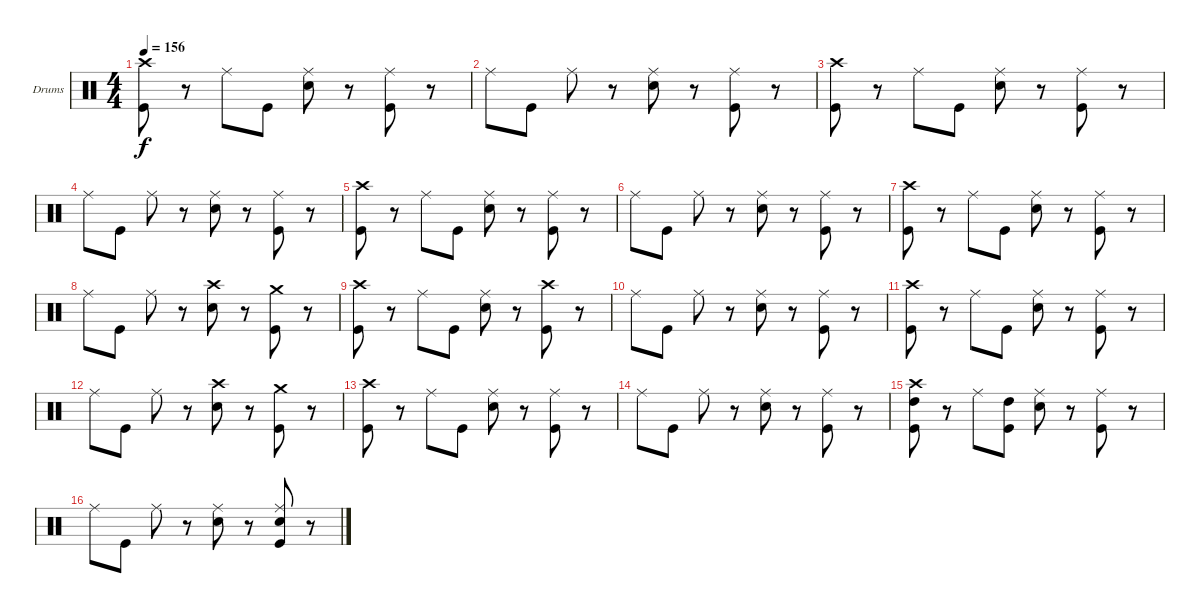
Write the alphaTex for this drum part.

\defaultSystemsLayout 4
\bracketExtendMode groupsimilarinstruments
\firstSystemTrackNameOrientation horizontal
\otherSystemsTrackNameOrientation horizontal
\track ("Anton Kubrak" "Drums") {instrument percussion}
\staff {score}
\articulation defaults
\ts (4 4)
\tempo 156
\clef neutral
\scale
0.333333
\ks c
("Crash high (hit)" "Kick (hit)").8{dy f} r.8 "Ride (middle)".8 "Kick (hit)".8 ("Ride (middle)" "Snare (hit) 2").8 r.8 ("Ride (middle)" "Kick (hit)").8 r.8 |
\scale
0.333333 "Ride (middle)".8 "Kick (hit)".8 "Ride (middle)".8 r.8 ("Ride (middle)" "Snare (hit) 2").8 r.8 ("Ride (middle)" "Kick (hit)").8 r.8 |
\scale
0.333333 ("Crash high (hit)" "Kick (hit)").8 r.8 "Ride (middle)".8 "Kick (hit)".8 ("Ride (middle)" "Snare (hit) 2").8 r.8 ("Ride (middle)" "Kick (hit)").8 r.8 |
\scale
0.333333 "Ride (middle)".8 "Kick (hit)".8 "Ride (middle)".8 r.8 ("Ride (middle)" "Snare (hit) 2").8 r.8 ("Ride (middle)" "Kick (hit)").8 r.8 |
\scale
0.333333 ("Crash high (hit)" "Kick (hit)").8 r.8 "Ride (middle)".8 "Kick (hit)".8 ("Ride (middle)" "Snare (hit) 2").8 r.8 ("Ride (middle)" "Kick (hit)").8 r.8 |
\scale
0.333333 "Ride (middle)".8 "Kick (hit)".8 "Ride (middle)".8 r.8 ("Ride (middle)" "Snare (hit) 2").8 r.8 ("Ride (middle)" "Kick (hit)").8 r.8 |
\scale
0.333333 ("Crash high (hit)" "Kick (hit)").8 r.8 "Ride (middle)".8 "Kick (hit)".8 ("Ride (middle)" "Snare (hit) 2").8 r.8 ("Ride (middle)" "Kick (hit)").8 r.8 |
\scale
0.333333 "Ride (middle)".8 "Kick (hit)".8 "Ride (middle)".8 r.8 ("Crash high (hit)" "Snare (hit) 2").8 r.8 ("Crash medium (hit)" "Kick (hit)").8 r.8 |
\scale
0.333333 ("Crash high (hit)" "Kick (hit)").8 r.8 "Ride (middle)".8 "Kick (hit)".8 ("Ride (middle)" "Snare (hit) 2").8 r.8 ("Crash high (hit)" "Kick (hit)").8 r.8 |
\scale
0.333333 "Ride (middle)".8 "Kick (hit)".8 "Ride (middle)".8 r.8 ("Ride (middle)" "Snare (hit) 2").8 r.8 ("Ride (middle)" "Kick (hit)").8 r.8 |
\scale
0.333333 ("Crash high (hit)" "Kick (hit)").8 r.8 "Ride (middle)".8 "Kick (hit)".8 ("Ride (middle)" "Snare (hit) 2").8 r.8 ("Ride (middle)" "Kick (hit)").8 r.8 |
\scale
0.333333 "Ride (middle)".8 "Kick (hit)".8 "Ride (middle)".8 r.8 ("Crash high (hit)" "Snare (hit) 2").8 r.8 ("Crash medium (hit)" "Kick (hit)").8 r.8 |
\scale
0.333333 ("Crash high (hit)" "Kick (hit)").8 r.8 "Ride (middle)".8 "Kick (hit)".8 ("Ride (middle)" "Snare (hit) 2").8 r.8 ("Ride (middle)" "Kick (hit)").8 r.8 |
\scale
0.333333 "Ride (middle)".8 "Kick (hit)".8 "Ride (middle)".8 r.8 ("Ride (middle)" "Snare (hit) 2").8 r.8 ("Ride (middle)" "Kick (hit)").8 r.8 |
\scale
0.333333 ("Crash high (hit)" "Kick (hit)" "High Tom (hit)").8 r.8 "Ride (middle)".8 ("Kick (hit)" "High Tom (hit)").8 ("Ride (middle)" "Snare (hit) 2").8 r.8 ("Ride (middle)" "Kick (hit)").8 r.8 |
\scale
0.333333 "Ride (middle)".8 "Kick (hit)".8 "Ride (middle)".8 r.8 ("Ride (middle)" "Snare (hit) 2").8 r.8 ("Ride (middle)" "Kick (hit)" "Snare (hit) 2").8 r.8
